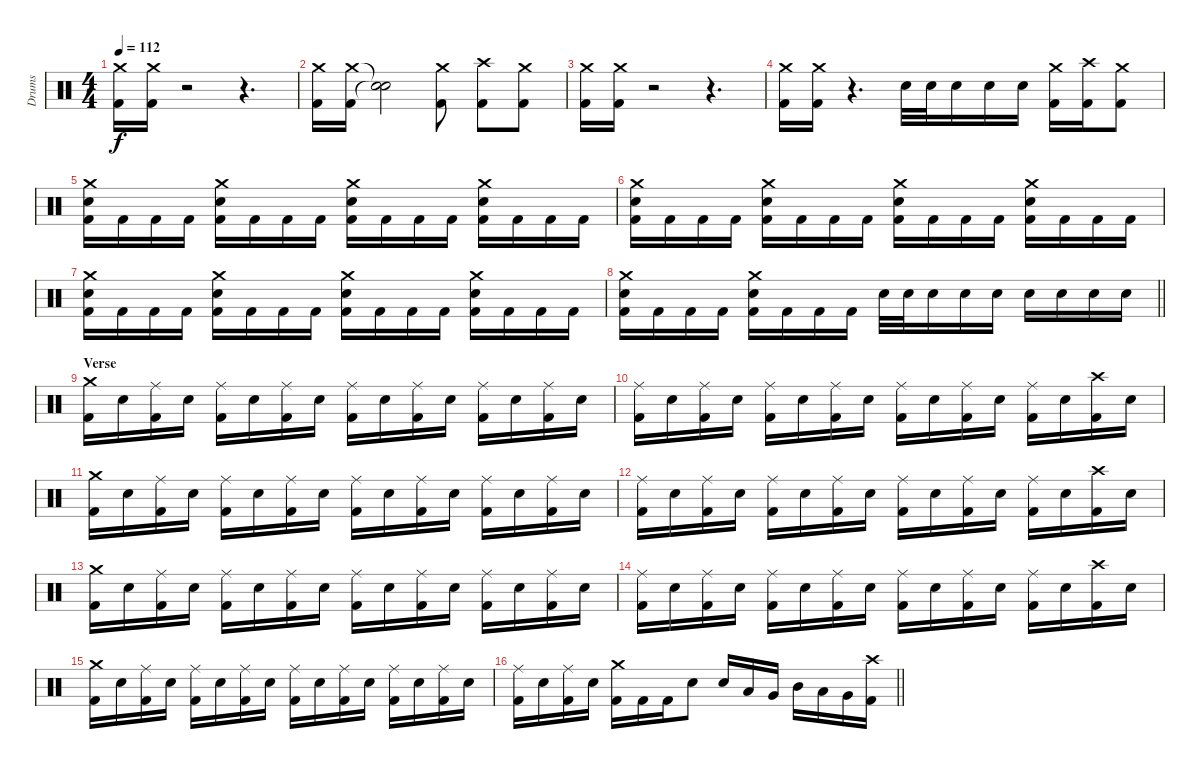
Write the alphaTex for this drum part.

\track ("Drums" "Drums") {instrument percussion}
\staff {score}
\articulation defaults
\ts (4 4)
\tempo 112
\clef neutral
\ks c
("Crash medium (hit)" "Kick (hit) 2").16{dy f} ("Crash medium (hit)" "Kick (hit) 2").16 r.2 r.4{d} |
("Crash medium (hit)" "Kick (hit) 2").16 ("Crash medium (hit)" "Kick (hit) 2").16 ("Snare (hit)"{t} "Snare (hit)"{t}).2 ("Crash medium (hit)" "Kick (hit) 2").8 ("Crash high (hit)" "Kick (hit) 2").8 ("Crash medium (hit)" "Kick (hit) 2").8 |
("Crash medium (hit)" "Kick (hit) 2").16 ("Crash medium (hit)" "Kick (hit) 2").16 r.2 r.4{d} |
("Crash medium (hit)" "Kick (hit) 2").16 ("Crash medium (hit)" "Kick (hit) 2").16 r.4{d} "Electric Snare (hit)".32 "Electric Snare (hit)".32 "Electric Snare (hit)".16 "Electric Snare (hit)".16 "Electric Snare (hit)".16 ("Crash medium (hit)" "Kick (hit) 2").16 ("Crash high (hit)" "Kick (hit) 2").16 ("Crash medium (hit)" "Kick (hit) 2").8 |
("Crash medium (hit)" "Electric Snare (hit)" "Kick (hit) 2").16 "Kick (hit) 2".16 "Kick (hit) 2".16 "Kick (hit) 2".16 ("Crash medium (hit)" "Electric Snare (hit)" "Kick (hit) 2").16 "Kick (hit) 2".16 "Kick (hit) 2".16 "Kick (hit) 2".16 ("Crash medium (hit)" "Electric Snare (hit)" "Kick (hit) 2").16 "Kick (hit) 2".16 "Kick (hit) 2".16 "Kick (hit) 2".16 ("Crash medium (hit)" "Electric Snare (hit)" "Kick (hit) 2").16 "Kick (hit) 2".16 "Kick (hit) 2".16 "Kick (hit) 2".16 |
("Crash medium (hit)" "Electric Snare (hit)" "Kick (hit) 2").16 "Kick (hit) 2".16 "Kick (hit) 2".16 "Kick (hit) 2".16 ("Crash medium (hit)" "Electric Snare (hit)" "Kick (hit) 2").16 "Kick (hit) 2".16 "Kick (hit) 2".16 "Kick (hit) 2".16 ("Crash medium (hit)" "Electric Snare (hit)" "Kick (hit) 2").16 "Kick (hit) 2".16 "Kick (hit) 2".16 "Kick (hit) 2".16 ("Crash medium (hit)" "Electric Snare (hit)" "Kick (hit) 2").16 "Kick (hit) 2".16 "Kick (hit) 2".16 "Kick (hit) 2".16 |
("Crash medium (hit)" "Electric Snare (hit)" "Kick (hit) 2").16 "Kick (hit) 2".16 "Kick (hit) 2".16 "Kick (hit) 2".16 ("Crash medium (hit)" "Electric Snare (hit)" "Kick (hit) 2").16 "Kick (hit) 2".16 "Kick (hit) 2".16 "Kick (hit) 2".16 ("Crash medium (hit)" "Electric Snare (hit)" "Kick (hit) 2").16 "Kick (hit) 2".16 "Kick (hit) 2".16 "Kick (hit) 2".16 ("Crash medium (hit)" "Electric Snare (hit)" "Kick (hit) 2").16 "Kick (hit) 2".16 "Kick (hit) 2".16 "Kick (hit) 2".16 |
\barLineRight lightlight
("Crash medium (hit)" "Electric Snare (hit)" "Kick (hit) 2").16 "Kick (hit) 2".16 "Kick (hit) 2".16 "Kick (hit) 2".16 ("Crash medium (hit)" "Electric Snare (hit)" "Kick (hit) 2").16 "Kick (hit) 2".16 "Kick (hit) 2".16 "Kick (hit) 2".16 "Electric Snare (hit)".32 "Electric Snare (hit)".32 "Electric Snare (hit)".16 "Electric Snare (hit)".16 "Electric Snare (hit)".16 "Electric Snare (hit)".16 "Electric Snare (hit)".16 "Electric Snare (hit)".16 "Electric Snare (hit)".16 |
\section ("" "Verse")
("Crash medium (hit)" "Kick (hit) 2").16 "Electric Snare (hit)".16 ("Ride (middle)" "Kick (hit) 2").16 "Electric Snare (hit)".16 ("Ride (middle)" "Kick (hit) 2").16 "Electric Snare (hit)".16 ("Ride (middle)" "Kick (hit) 2").16 "Electric Snare (hit)".16 ("Ride (middle)" "Kick (hit) 2").16 "Electric Snare (hit)".16 ("Ride (middle)" "Kick (hit) 2").16 "Electric Snare (hit)".16 ("Ride (middle)" "Kick (hit) 2").16 "Electric Snare (hit)".16 ("Ride (middle)" "Kick (hit) 2").16 "Electric Snare (hit)".16 |
("Ride (middle)" "Kick (hit) 2").16 "Electric Snare (hit)".16 ("Ride (middle)" "Kick (hit) 2").16 "Electric Snare (hit)".16 ("Ride (middle)" "Kick (hit) 2").16 "Electric Snare (hit)".16 ("Ride (middle)" "Kick (hit) 2").16 "Electric Snare (hit)".16 ("Ride (middle)" "Kick (hit) 2").16 "Electric Snare (hit)".16 ("Ride (middle)" "Kick (hit) 2").16 "Electric Snare (hit)".16 ("Ride (middle)" "Kick (hit) 2").16 "Electric Snare (hit)".16 ("Crash high (hit)" "Kick (hit) 2").16 "Electric Snare (hit)".16 |
("Crash medium (hit)" "Kick (hit) 2").16 "Electric Snare (hit)".16 ("Ride (middle)" "Kick (hit) 2").16 "Electric Snare (hit)".16 ("Ride (middle)" "Kick (hit) 2").16 "Electric Snare (hit)".16 ("Ride (middle)" "Kick (hit) 2").16 "Electric Snare (hit)".16 ("Ride (middle)" "Kick (hit) 2").16 "Electric Snare (hit)".16 ("Ride (middle)" "Kick (hit) 2").16 "Electric Snare (hit)".16 ("Ride (middle)" "Kick (hit) 2").16 "Electric Snare (hit)".16 ("Ride (middle)" "Kick (hit) 2").16 "Electric Snare (hit)".16 |
("Ride (middle)" "Kick (hit) 2").16 "Electric Snare (hit)".16 ("Ride (middle)" "Kick (hit) 2").16 "Electric Snare (hit)".16 ("Ride (middle)" "Kick (hit) 2").16 "Electric Snare (hit)".16 ("Ride (middle)" "Kick (hit) 2").16 "Electric Snare (hit)".16 ("Ride (middle)" "Kick (hit) 2").16 "Electric Snare (hit)".16 ("Ride (middle)" "Kick (hit) 2").16 "Electric Snare (hit)".16 ("Ride (middle)" "Kick (hit) 2").16 "Electric Snare (hit)".16 ("Crash high (hit)" "Kick (hit) 2").16 "Electric Snare (hit)".16 |
("Crash medium (hit)" "Kick (hit) 2").16 "Electric Snare (hit)".16 ("Ride (middle)" "Kick (hit) 2").16 "Electric Snare (hit)".16 ("Ride (middle)" "Kick (hit) 2").16 "Electric Snare (hit)".16 ("Ride (middle)" "Kick (hit) 2").16 "Electric Snare (hit)".16 ("Ride (middle)" "Kick (hit) 2").16 "Electric Snare (hit)".16 ("Ride (middle)" "Kick (hit) 2").16 "Electric Snare (hit)".16 ("Ride (middle)" "Kick (hit) 2").16 "Electric Snare (hit)".16 ("Ride (middle)" "Kick (hit) 2").16 "Electric Snare (hit)".16 |
("Ride (middle)" "Kick (hit) 2").16 "Electric Snare (hit)".16 ("Ride (middle)" "Kick (hit) 2").16 "Electric Snare (hit)".16 ("Ride (middle)" "Kick (hit) 2").16 "Electric Snare (hit)".16 ("Ride (middle)" "Kick (hit) 2").16 "Electric Snare (hit)".16 ("Ride (middle)" "Kick (hit) 2").16 "Electric Snare (hit)".16 ("Ride (middle)" "Kick (hit) 2").16 "Electric Snare (hit)".16 ("Ride (middle)" "Kick (hit) 2").16 "Electric Snare (hit)".16 ("Crash high (hit)" "Kick (hit) 2").16 "Electric Snare (hit)".16 |
("Crash medium (hit)" "Kick (hit) 2").16 "Electric Snare (hit)".16 ("Ride (middle)" "Kick (hit) 2").16 "Electric Snare (hit)".16 ("Ride (middle)" "Kick (hit) 2").16 "Electric Snare (hit)".16 ("Ride (middle)" "Kick (hit) 2").16 "Electric Snare (hit)".16 ("Ride (middle)" "Kick (hit) 2").16 "Electric Snare (hit)".16 ("Ride (middle)" "Kick (hit) 2").16 "Electric Snare (hit)".16 ("Ride (middle)" "Kick (hit) 2").16 "Electric Snare (hit)".16 ("Ride (middle)" "Kick (hit) 2").16 "Electric Snare (hit)".16 |
\barLineRight lightlight
("Ride (middle)" "Kick (hit) 2").16 "Electric Snare (hit)".16 ("Ride (middle)" "Kick (hit) 2").16 "Electric Snare (hit)".16 ("Crash medium (hit)" "Kick (hit) 2").16 "Kick (hit) 2".16 "Kick (hit) 2".16 "Electric Snare (hit)".8 "Electric Snare (hit)".16 "Low Tom (hit)".16 "Very Low Tom (hit)".16 "Mid Tom (hit)".16 "Low Tom (hit)".16 "Very Low Tom (hit)".16 ("Crash high (hit)" "Kick (hit) 2").16
